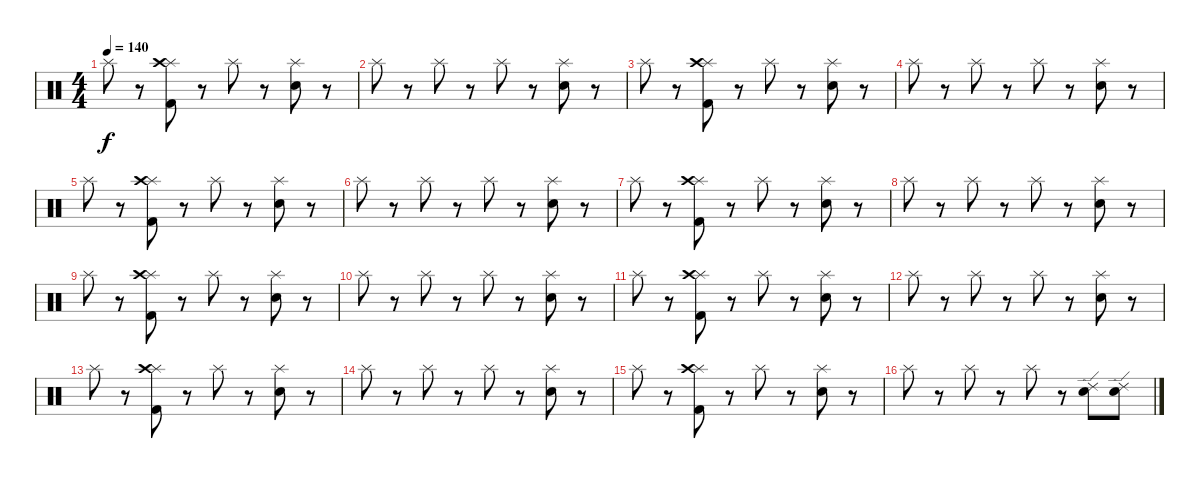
\track "" {instrument percussion}
\staff {score}
\articulation defaults
\ts (4 4)
\tempo 140
\clef neutral
\ks c "Splash (hit)".8{dy f}
r.8 ("Kick (hit) 2" "Splash (hit)" "Crash high (hit)").8 r.8 "Splash (hit)".8 r.8 ("Splash (hit)" "Electric Snare (hit)").8 r.8 |
"Splash (hit)".8 r.8 "Splash (hit)".8 r.8 "Splash (hit)".8 r.8 ("Splash (hit)" "Electric Snare (hit)").8 r.8 |
"Splash (hit)".8 r.8 ("Kick (hit) 2" "Splash (hit)" "Crash high (hit)").8 r.8 "Splash (hit)".8 r.8 ("Splash (hit)" "Electric Snare (hit)").8 r.8 |
"Splash (hit)".8 r.8 "Splash (hit)".8 r.8 "Splash (hit)".8 r.8 ("Splash (hit)" "Electric Snare (hit)").8 r.8 |
"Splash (hit)".8 r.8 ("Kick (hit) 2" "Splash (hit)" "Crash high (hit)").8 r.8 "Splash (hit)".8 r.8 ("Splash (hit)" "Electric Snare (hit)").8 r.8 |
"Splash (hit)".8 r.8 "Splash (hit)".8 r.8 "Splash (hit)".8 r.8 ("Splash (hit)" "Electric Snare (hit)").8 r.8 |
"Splash (hit)".8 r.8 ("Kick (hit) 2" "Splash (hit)" "Crash high (hit)").8 r.8 "Splash (hit)".8 r.8 ("Splash (hit)" "Electric Snare (hit)").8 r.8 |
"Splash (hit)".8 r.8 "Splash (hit)".8 r.8 "Splash (hit)".8 r.8 ("Splash (hit)" "Electric Snare (hit)").8 r.8 |
"Splash (hit)".8 r.8 ("Kick (hit) 2" "Splash (hit)" "Crash high (hit)").8 r.8 "Splash (hit)".8 r.8 ("Splash (hit)" "Electric Snare (hit)").8 r.8 |
"Splash (hit)".8 r.8 "Splash (hit)".8 r.8 "Splash (hit)".8 r.8 ("Splash (hit)" "Electric Snare (hit)").8 r.8 |
"Splash (hit)".8 r.8 ("Kick (hit) 2" "Splash (hit)" "Crash high (hit)").8 r.8 "Splash (hit)".8 r.8 ("Splash (hit)" "Electric Snare (hit)").8 r.8 |
"Splash (hit)".8 r.8 "Splash (hit)".8 r.8 "Splash (hit)".8 r.8 ("Splash (hit)" "Electric Snare (hit)").8 r.8 |
"Splash (hit)".8 r.8 ("Kick (hit) 2" "Splash (hit)" "Crash high (hit)").8 r.8 "Splash (hit)".8 r.8 ("Splash (hit)" "Electric Snare (hit)").8 r.8 |
"Splash (hit)".8 r.8 "Splash (hit)".8 r.8 "Splash (hit)".8 r.8 ("Splash (hit)" "Electric Snare (hit)").8 r.8 |
"Splash (hit)".8 r.8 ("Kick (hit) 2" "Splash (hit)" "Crash high (hit)").8 r.8 "Splash (hit)".8 r.8 ("Splash (hit)" "Electric Snare (hit)").8 r.8 |
"Splash (hit)".8 r.8 "Splash (hit)".8 r.8 "Splash (hit)".8 r.8 ("Ride (edge) 2" "Electric Snare (hit)").8 ("Ride (edge) 2" "Electric Snare (hit)").8
